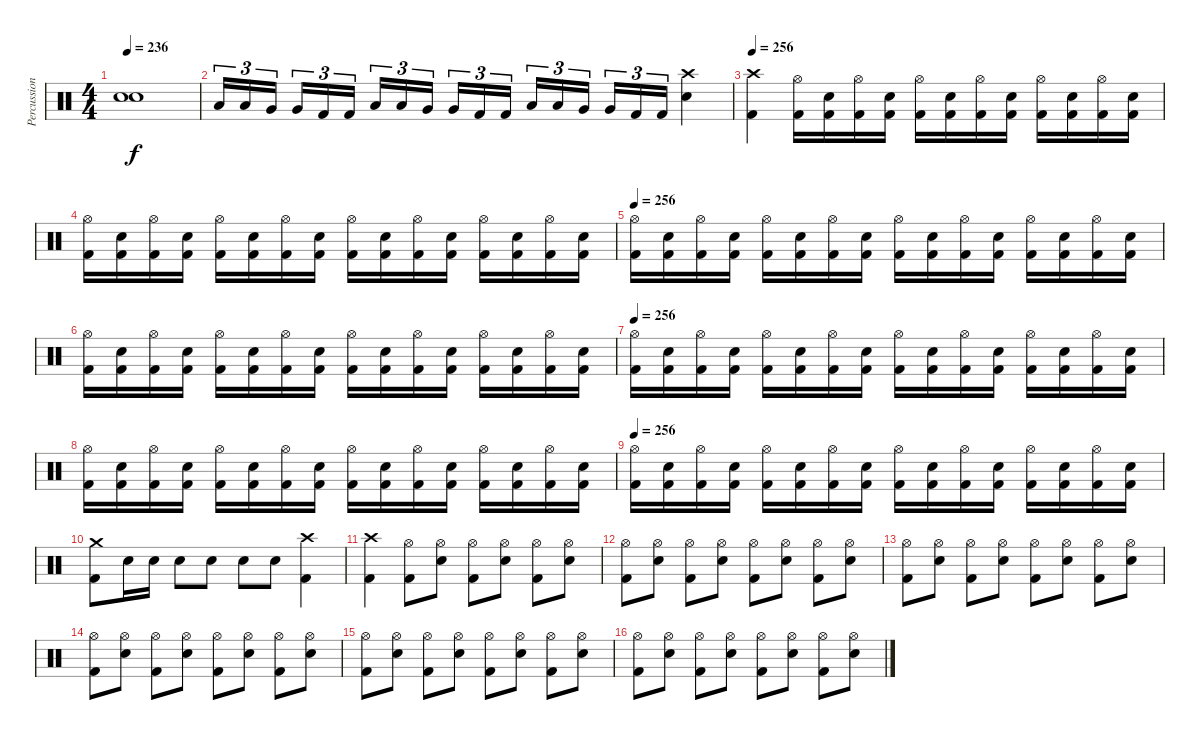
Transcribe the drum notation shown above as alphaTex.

\track ("Percussion" "Percussion") {instrument percussion}
\staff {score}
\articulation defaults
\ts (4 4)
\tempo 236
\clef neutral
\ks c
("Snare (hit)"{t} "Snare (hit)"{t}).1{dy f} |
"Low Tom (hit)".16{tu (3 2)} "Low Tom (hit)".16{tu (3 2)} "Very Low Tom (hit)".16{tu (3 2) beam splitsecondary} "Very Low Tom (hit)".16{tu (3 2)} "Kick (hit) 2".16{tu (3 2)} "Kick (hit) 2".16{tu (3 2)} "Low Tom (hit)".16{tu (3 2)} "Low Tom (hit)".16{tu (3 2)} "Very Low Tom (hit)".16{tu (3 2) beam splitsecondary} "Very Low Tom (hit)".16{tu (3 2)} "Kick (hit) 2".16{tu (3 2)} "Kick (hit) 2".16{tu (3 2)} "Low Tom (hit)".16{tu (3 2)} "Low Tom (hit)".16{tu (3 2)} "Very Low Tom (hit)".16{tu (3 2) beam splitsecondary} "Very Low Tom (hit)".16{tu (3 2)} "Kick (hit) 2".16{tu (3 2)} "Kick (hit) 2".16{tu (3 2)} ("Crash high (hit)" "Snare (hit) 2").4 |
\tempo 256
("Crash high (hit)" "Kick (hit) 2").4 ("Hi-Hat (open)" "Kick (hit) 2").16 ("Snare (hit) 2" "Kick (hit) 2").16 ("Hi-Hat (open)" "Kick (hit) 2").16 ("Snare (hit) 2" "Kick (hit) 2").16 ("Hi-Hat (open)" "Kick (hit) 2").16 ("Snare (hit) 2" "Kick (hit) 2").16 ("Hi-Hat (open)" "Kick (hit) 2").16 ("Snare (hit) 2" "Kick (hit) 2").16 ("Hi-Hat (open)" "Kick (hit) 2").16 ("Kick (hit) 2" "Snare (hit) 2").16 ("Hi-Hat (open)" "Kick (hit) 2").16 ("Kick (hit) 2" "Snare (hit) 2").16 |
("Hi-Hat (open)" "Kick (hit) 2").16 ("Snare (hit) 2" "Kick (hit) 2").16 ("Hi-Hat (open)" "Kick (hit) 2").16 ("Snare (hit) 2" "Kick (hit) 2").16 ("Hi-Hat (open)" "Kick (hit) 2").16 ("Snare (hit) 2" "Kick (hit) 2").16 ("Hi-Hat (open)" "Kick (hit) 2").16 ("Snare (hit) 2" "Kick (hit) 2").16 ("Hi-Hat (open)" "Kick (hit) 2").16 ("Snare (hit) 2" "Kick (hit) 2").16 ("Hi-Hat (open)" "Kick (hit) 2").16 ("Snare (hit) 2" "Kick (hit) 2").16 ("Hi-Hat (open)" "Kick (hit) 2").16 ("Snare (hit) 2" "Kick (hit) 2").16 ("Hi-Hat (open)" "Kick (hit) 2").16 ("Snare (hit) 2" "Kick (hit) 2").16 |
\tempo 256
("Hi-Hat (open)" "Kick (hit) 2").16 ("Snare (hit) 2" "Kick (hit) 2").16 ("Hi-Hat (open)" "Kick (hit) 2").16 ("Snare (hit) 2" "Kick (hit) 2").16 ("Hi-Hat (open)" "Kick (hit) 2").16 ("Snare (hit) 2" "Kick (hit) 2").16 ("Hi-Hat (open)" "Kick (hit) 2").16 ("Snare (hit) 2" "Kick (hit) 2").16 ("Hi-Hat (open)" "Kick (hit) 2").16 ("Snare (hit) 2" "Kick (hit) 2").16 ("Hi-Hat (open)" "Kick (hit) 2").16 ("Snare (hit) 2" "Kick (hit) 2").16 ("Hi-Hat (open)" "Kick (hit) 2").16 ("Snare (hit) 2" "Kick (hit) 2").16 ("Hi-Hat (open)" "Kick (hit) 2").16 ("Snare (hit) 2" "Kick (hit) 2").16 |
("Hi-Hat (open)" "Kick (hit) 2").16 ("Snare (hit) 2" "Kick (hit) 2").16 ("Hi-Hat (open)" "Kick (hit) 2").16 ("Snare (hit) 2" "Kick (hit) 2").16 ("Hi-Hat (open)" "Kick (hit) 2").16 ("Snare (hit) 2" "Kick (hit) 2").16 ("Hi-Hat (open)" "Kick (hit) 2").16 ("Snare (hit) 2" "Kick (hit) 2").16 ("Hi-Hat (open)" "Kick (hit) 2").16 ("Snare (hit) 2" "Kick (hit) 2").16 ("Hi-Hat (open)" "Kick (hit) 2").16 ("Snare (hit) 2" "Kick (hit) 2").16 ("Hi-Hat (open)" "Kick (hit) 2").16 ("Snare (hit) 2" "Kick (hit) 2").16 ("Hi-Hat (open)" "Kick (hit) 2").16 ("Snare (hit) 2" "Kick (hit) 2").16 |
\tempo 256
("Hi-Hat (open)" "Kick (hit) 2").16 ("Snare (hit) 2" "Kick (hit) 2").16 ("Hi-Hat (open)" "Kick (hit) 2").16 ("Snare (hit) 2" "Kick (hit) 2").16 ("Hi-Hat (open)" "Kick (hit) 2").16 ("Snare (hit) 2" "Kick (hit) 2").16 ("Hi-Hat (open)" "Kick (hit) 2").16 ("Snare (hit) 2" "Kick (hit) 2").16 ("Hi-Hat (open)" "Kick (hit) 2").16 ("Snare (hit) 2" "Kick (hit) 2").16 ("Hi-Hat (open)" "Kick (hit) 2").16 ("Snare (hit) 2" "Kick (hit) 2").16 ("Hi-Hat (open)" "Kick (hit) 2").16 ("Snare (hit) 2" "Kick (hit) 2").16 ("Hi-Hat (open)" "Kick (hit) 2").16 ("Snare (hit) 2" "Kick (hit) 2").16 |
("Hi-Hat (open)" "Kick (hit) 2").16 ("Snare (hit) 2" "Kick (hit) 2").16 ("Hi-Hat (open)" "Kick (hit) 2").16 ("Snare (hit) 2" "Kick (hit) 2").16 ("Hi-Hat (open)" "Kick (hit) 2").16 ("Snare (hit) 2" "Kick (hit) 2").16 ("Hi-Hat (open)" "Kick (hit) 2").16 ("Snare (hit) 2" "Kick (hit) 2").16 ("Hi-Hat (open)" "Kick (hit) 2").16 ("Snare (hit) 2" "Kick (hit) 2").16 ("Hi-Hat (open)" "Kick (hit) 2").16 ("Snare (hit) 2" "Kick (hit) 2").16 ("Hi-Hat (open)" "Kick (hit) 2").16 ("Snare (hit) 2" "Kick (hit) 2").16 ("Hi-Hat (open)" "Kick (hit) 2").16 ("Snare (hit) 2" "Kick (hit) 2").16 |
\tempo 256
("Hi-Hat (open)" "Kick (hit) 2").16 ("Snare (hit) 2" "Kick (hit) 2").16 ("Hi-Hat (open)" "Kick (hit) 2").16 ("Snare (hit) 2" "Kick (hit) 2").16 ("Hi-Hat (open)" "Kick (hit) 2").16 ("Snare (hit) 2" "Kick (hit) 2").16 ("Hi-Hat (open)" "Kick (hit) 2").16 ("Snare (hit) 2" "Kick (hit) 2").16 ("Hi-Hat (open)" "Kick (hit) 2").16 ("Snare (hit) 2" "Kick (hit) 2").16 ("Hi-Hat (open)" "Kick (hit) 2").16 ("Snare (hit) 2" "Kick (hit) 2").16 ("Hi-Hat (open)" "Kick (hit) 2").16 ("Snare (hit) 2" "Kick (hit) 2").16 ("Hi-Hat (open)" "Kick (hit) 2").16 ("Snare (hit) 2" "Kick (hit) 2").16 |
("Crash medium (hit)" "Kick (hit) 2").8 "Snare (hit) 2".16 "Snare (hit) 2".16 "Snare (hit) 2".8 "Snare (hit) 2".8 "Snare (hit) 2".8 "Snare (hit) 2".8 ("Crash high (hit)" "Kick (hit) 2").4 |
("Crash high (hit)" "Kick (hit) 2").4 ("Hi-Hat (open)" "Kick (hit) 2").8 ("Hi-Hat (open)" "Snare (hit) 2").8 ("Hi-Hat (open)" "Kick (hit) 2").8 ("Hi-Hat (open)" "Snare (hit) 2").8 ("Hi-Hat (open)" "Kick (hit) 2").8 ("Hi-Hat (open)" "Snare (hit) 2").8 |
("Hi-Hat (open)" "Kick (hit) 2").8 ("Hi-Hat (open)" "Snare (hit) 2").8 ("Hi-Hat (open)" "Kick (hit) 2").8 ("Hi-Hat (open)" "Snare (hit) 2").8 ("Hi-Hat (open)" "Kick (hit) 2").8 ("Hi-Hat (open)" "Snare (hit) 2").8 ("Hi-Hat (open)" "Kick (hit) 2").8 ("Hi-Hat (open)" "Snare (hit) 2").8 |
("Hi-Hat (open)" "Kick (hit) 2").8 ("Hi-Hat (open)" "Snare (hit) 2").8 ("Hi-Hat (open)" "Kick (hit) 2").8 ("Hi-Hat (open)" "Snare (hit) 2").8 ("Hi-Hat (open)" "Kick (hit) 2").8 ("Hi-Hat (open)" "Snare (hit) 2").8 ("Hi-Hat (open)" "Kick (hit) 2").8 ("Hi-Hat (open)" "Snare (hit) 2").8 |
("Hi-Hat (open)" "Kick (hit) 2").8 ("Hi-Hat (open)" "Snare (hit) 2").8 ("Hi-Hat (open)" "Kick (hit) 2").8 ("Hi-Hat (open)" "Snare (hit) 2").8 ("Hi-Hat (open)" "Kick (hit) 2").8 ("Hi-Hat (open)" "Snare (hit) 2").8 ("Hi-Hat (open)" "Kick (hit) 2").8 ("Hi-Hat (open)" "Snare (hit) 2").8 |
("Hi-Hat (open)" "Kick (hit) 2").8 ("Hi-Hat (open)" "Snare (hit) 2").8 ("Hi-Hat (open)" "Kick (hit) 2").8 ("Hi-Hat (open)" "Snare (hit) 2").8 ("Hi-Hat (open)" "Kick (hit) 2").8 ("Hi-Hat (open)" "Snare (hit) 2").8 ("Hi-Hat (open)" "Kick (hit) 2").8 ("Hi-Hat (open)" "Snare (hit) 2").8 |
("Hi-Hat (open)" "Kick (hit) 2").8 ("Hi-Hat (open)" "Snare (hit) 2").8 ("Hi-Hat (open)" "Kick (hit) 2").8 ("Hi-Hat (open)" "Snare (hit) 2").8 ("Hi-Hat (open)" "Kick (hit) 2").8 ("Hi-Hat (open)" "Snare (hit) 2").8 ("Hi-Hat (open)" "Kick (hit) 2").8 ("Hi-Hat (open)" "Snare (hit) 2").8
